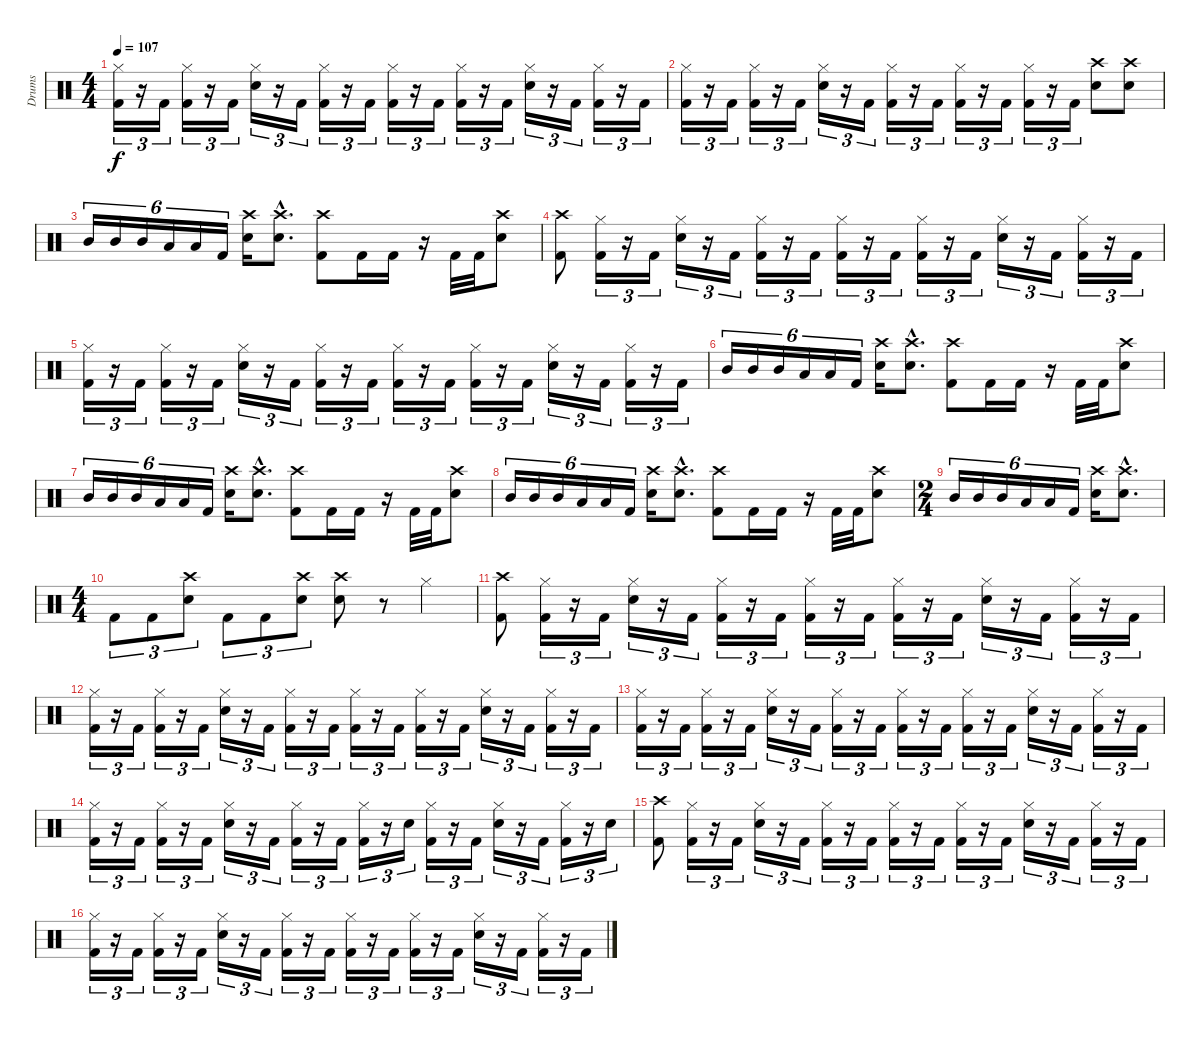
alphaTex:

\track ("Drums" "Drums") {instrument percussion}
\staff {score}
\articulation defaults
\ts (4 4)
\tempo 107
\clef neutral
\ks c
("Hi-Hat (closed)" "Kick (hit) 2").16{tu (3 2) dy f} r.16{tu (3 2)} "Kick (hit) 2".16{tu (3 2)} ("Hi-Hat (closed)" "Kick (hit) 2").16{tu (3 2)} r.16{tu (3 2)} "Kick (hit) 2".16{tu (3 2)} ("Hi-Hat (closed)" "Electric Snare (hit)").16{tu (3 2)} r.16{tu (3 2)} "Kick (hit) 2".16{tu (3 2)} ("Hi-Hat (closed)" "Kick (hit) 2").16{tu (3 2)} r.16{tu (3 2)} "Kick (hit) 2".16{tu (3 2)} ("Hi-Hat (closed)" "Kick (hit) 2").16{tu (3 2)} r.16{tu (3 2)} "Kick (hit) 2".16{tu (3 2)} ("Hi-Hat (closed)" "Kick (hit) 2").16{tu (3 2)} r.16{tu (3 2)} "Kick (hit) 2".16{tu (3 2)} ("Hi-Hat (closed)" "Electric Snare (hit)").16{tu (3 2)} r.16{tu (3 2)} "Kick (hit) 2".16{tu (3 2)} ("Hi-Hat (closed)" "Kick (hit) 2").16{tu (3 2)} r.16{tu (3 2)} "Kick (hit) 2".16{tu (3 2)} |
("Hi-Hat (closed)" "Kick (hit) 2").16{tu (3 2)} r.16{tu (3 2)} "Kick (hit) 2".16{tu (3 2)} ("Hi-Hat (closed)" "Kick (hit) 2").16{tu (3 2)} r.16{tu (3 2)} "Kick (hit) 2".16{tu (3 2)} ("Hi-Hat (closed)" "Electric Snare (hit)").16{tu (3 2)} r.16{tu (3 2)} "Kick (hit) 2".16{tu (3 2)} ("Hi-Hat (closed)" "Kick (hit) 2").16{tu (3 2)} r.16{tu (3 2)} "Kick (hit) 2".16{tu (3 2)} ("Hi-Hat (closed)" "Kick (hit) 2").16{tu (3 2)} r.16{tu (3 2)} "Kick (hit) 2".16{tu (3 2)} ("Hi-Hat (closed)" "Kick (hit) 2").16{tu (3 2)} r.16{tu (3 2)} "Kick (hit) 2".16{tu (3 2)} ("Crash high (hit)" "Electric Snare (hit)").8 ("Crash high (hit)" "Electric Snare (hit)").8 |
"Mid Tom (hit)".16{tu (6 4)} "Mid Tom (hit)".16{tu (6 4)} "Mid Tom (hit)".16{tu (6 4)} "Low Tom (hit)".16{tu (6 4)} "Low Tom (hit)".16{tu (6 4)} "Kick (hit) 2".16{tu (6 4)} ("Crash high (hit)" "Electric Snare (hit)").16 ("Crash high (hit)"{hac} "Electric Snare (hit)"{hac}).8{d} ("Crash high (hit)" "Kick (hit) 2").8 "Kick (hit) 2".16 "Kick (hit) 2".16 r.16 "Kick (hit) 2".32 "Kick (hit) 2".32 ("Crash high (hit)" "Electric Snare (hit)").8 |
("Crash high (hit)" "Kick (hit) 2").8{balance 8} ("Hi-Hat (closed)" "Kick (hit) 2").16{tu (3 2)} r.16{tu (3 2)} "Kick (hit) 2".16{tu (3 2)} ("Hi-Hat (closed)" "Electric Snare (hit)").16{tu (3 2)} r.16{tu (3 2)} "Kick (hit) 2".16{tu (3 2)} ("Hi-Hat (closed)" "Kick (hit) 2").16{tu (3 2)} r.16{tu (3 2)} "Kick (hit) 2".16{tu (3 2)} ("Hi-Hat (closed)" "Kick (hit) 2").16{tu (3 2)} r.16{tu (3 2)} "Kick (hit) 2".16{tu (3 2)} ("Hi-Hat (closed)" "Kick (hit) 2").16{tu (3 2)} r.16{tu (3 2)} "Kick (hit) 2".16{tu (3 2)} ("Hi-Hat (closed)" "Electric Snare (hit)").16{tu (3 2)} r.16{tu (3 2)} "Kick (hit) 2".16{tu (3 2)} ("Hi-Hat (closed)" "Kick (hit) 2").16{tu (3 2)} r.16{tu (3 2)} "Kick (hit) 2".16{tu (3 2)} |
("Hi-Hat (closed)" "Kick (hit) 2").16{tu (3 2)} r.16{tu (3 2)} "Kick (hit) 2".16{tu (3 2)} ("Hi-Hat (closed)" "Kick (hit) 2").16{tu (3 2)} r.16{tu (3 2)} "Kick (hit) 2".16{tu (3 2)} ("Hi-Hat (closed)" "Electric Snare (hit)").16{tu (3 2)} r.16{tu (3 2)} "Kick (hit) 2".16{tu (3 2)} ("Hi-Hat (closed)" "Kick (hit) 2").16{tu (3 2)} r.16{tu (3 2)} "Kick (hit) 2".16{tu (3 2)} ("Hi-Hat (closed)" "Kick (hit) 2").16{tu (3 2)} r.16{tu (3 2)} "Kick (hit) 2".16{tu (3 2)} ("Hi-Hat (closed)" "Kick (hit) 2").16{tu (3 2)} r.16{tu (3 2)} "Kick (hit) 2".16{tu (3 2)} ("Hi-Hat (closed)" "Electric Snare (hit)").16{tu (3 2)} r.16{tu (3 2)} "Kick (hit) 2".16{tu (3 2)} ("Hi-Hat (closed)" "Kick (hit) 2").16{tu (3 2)} r.16{tu (3 2)} "Kick (hit) 2".16{tu (3 2)} |
"Mid Tom (hit)".16{tu (6 4)} "Mid Tom (hit)".16{tu (6 4)} "Mid Tom (hit)".16{tu (6 4)} "Low Tom (hit)".16{tu (6 4)} "Low Tom (hit)".16{tu (6 4)} "Kick (hit) 2".16{tu (6 4)} ("Crash high (hit)" "Electric Snare (hit)").16 ("Crash high (hit)"{hac} "Electric Snare (hit)"{hac}).8{d} ("Crash high (hit)" "Kick (hit) 2").8 "Kick (hit) 2".16 "Kick (hit) 2".16 r.16 "Kick (hit) 2".32 "Kick (hit) 2".32 ("Crash high (hit)" "Electric Snare (hit)").8 |
"Mid Tom (hit)".16{tu (6 4)} "Mid Tom (hit)".16{tu (6 4)} "Mid Tom (hit)".16{tu (6 4)} "Low Tom (hit)".16{tu (6 4)} "Low Tom (hit)".16{tu (6 4)} "Kick (hit) 2".16{tu (6 4)} ("Crash high (hit)" "Electric Snare (hit)").16 ("Crash high (hit)"{hac} "Electric Snare (hit)"{hac}).8{d} ("Crash high (hit)" "Kick (hit) 2").8 "Kick (hit) 2".16 "Kick (hit) 2".16 r.16 "Kick (hit) 2".32 "Kick (hit) 2".32 ("Crash high (hit)" "Electric Snare (hit)").8 |
"Mid Tom (hit)".16{tu (6 4)} "Mid Tom (hit)".16{tu (6 4)} "Mid Tom (hit)".16{tu (6 4)} "Low Tom (hit)".16{tu (6 4)} "Low Tom (hit)".16{tu (6 4)} "Kick (hit) 2".16{tu (6 4)} ("Crash high (hit)" "Electric Snare (hit)").16 ("Crash high (hit)"{hac} "Electric Snare (hit)"{hac}).8{d} ("Crash high (hit)" "Kick (hit) 2").8 "Kick (hit) 2".16 "Kick (hit) 2".16 r.16 "Kick (hit) 2".32 "Kick (hit) 2".32 ("Crash high (hit)" "Electric Snare (hit)").8 |
\ts (2 4)
"Mid Tom (hit)".16{tu (6 4)} "Mid Tom (hit)".16{tu (6 4)} "Mid Tom (hit)".16{tu (6 4)} "Low Tom (hit)".16{tu (6 4)} "Low Tom (hit)".16{tu (6 4)} "Kick (hit) 2".16{tu (6 4)} ("Crash high (hit)" "Electric Snare (hit)").16 ("Crash high (hit)"{hac} "Electric Snare (hit)"{hac}).8{d} |
\ts (4 4)
"Kick (hit) 2".8{tu (3 2)} "Kick (hit) 2".8{tu (3 2)} ("Crash high (hit)" "Electric Snare (hit)").8{tu (3 2)} "Kick (hit) 2".8{tu (3 2)} "Kick (hit) 2".8{tu (3 2)} ("Crash high (hit)" "Electric Snare (hit)").8{tu (3 2)} ("Crash high (hit)" "Electric Snare (hit)").8 r.8 "Hi-Hat (closed)".4 |
("Crash high (hit)" "Kick (hit) 2").8{balance 8} ("Hi-Hat (closed)" "Kick (hit) 2").16{tu (3 2)} r.16{tu (3 2)} "Kick (hit) 2".16{tu (3 2)} ("Hi-Hat (closed)" "Electric Snare (hit)").16{tu (3 2)} r.16{tu (3 2)} "Kick (hit) 2".16{tu (3 2)} ("Hi-Hat (closed)" "Kick (hit) 2").16{tu (3 2)} r.16{tu (3 2)} "Kick (hit) 2".16{tu (3 2)} ("Hi-Hat (closed)" "Kick (hit) 2").16{tu (3 2)} r.16{tu (3 2)} "Kick (hit) 2".16{tu (3 2)} ("Hi-Hat (closed)" "Kick (hit) 2").16{tu (3 2)} r.16{tu (3 2)} "Kick (hit) 2".16{tu (3 2)} ("Hi-Hat (closed)" "Electric Snare (hit)").16{tu (3 2)} r.16{tu (3 2)} "Kick (hit) 2".16{tu (3 2)} ("Hi-Hat (closed)" "Kick (hit) 2").16{tu (3 2)} r.16{tu (3 2)} "Kick (hit) 2".16{tu (3 2)} |
("Hi-Hat (closed)" "Kick (hit) 2").16{tu (3 2)} r.16{tu (3 2)} "Kick (hit) 2".16{tu (3 2)} ("Hi-Hat (closed)" "Kick (hit) 2").16{tu (3 2)} r.16{tu (3 2)} "Kick (hit) 2".16{tu (3 2)} ("Hi-Hat (closed)" "Electric Snare (hit)").16{tu (3 2)} r.16{tu (3 2)} "Kick (hit) 2".16{tu (3 2)} ("Hi-Hat (closed)" "Kick (hit) 2").16{tu (3 2)} r.16{tu (3 2)} "Kick (hit) 2".16{tu (3 2)} ("Hi-Hat (closed)" "Kick (hit) 2").16{tu (3 2)} r.16{tu (3 2)} "Kick (hit) 2".16{tu (3 2)} ("Hi-Hat (closed)" "Kick (hit) 2").16{tu (3 2)} r.16{tu (3 2)} "Kick (hit) 2".16{tu (3 2)} ("Hi-Hat (closed)" "Electric Snare (hit)").16{tu (3 2)} r.16{tu (3 2)} "Kick (hit) 2".16{tu (3 2)} ("Hi-Hat (closed)" "Kick (hit) 2").16{tu (3 2)} r.16{tu (3 2)} "Kick (hit) 2".16{tu (3 2)} |
("Hi-Hat (closed)" "Kick (hit) 2").16{tu (3 2)} r.16{tu (3 2)} "Kick (hit) 2".16{tu (3 2)} ("Hi-Hat (closed)" "Kick (hit) 2").16{tu (3 2)} r.16{tu (3 2)} "Kick (hit) 2".16{tu (3 2)} ("Hi-Hat (closed)" "Electric Snare (hit)").16{tu (3 2)} r.16{tu (3 2)} "Kick (hit) 2".16{tu (3 2)} ("Hi-Hat (closed)" "Kick (hit) 2").16{tu (3 2)} r.16{tu (3 2)} "Kick (hit) 2".16{tu (3 2)} ("Hi-Hat (closed)" "Kick (hit) 2").16{tu (3 2)} r.16{tu (3 2)} "Kick (hit) 2".16{tu (3 2)} ("Hi-Hat (closed)" "Kick (hit) 2").16{tu (3 2)} r.16{tu (3 2)} "Kick (hit) 2".16{tu (3 2)} ("Hi-Hat (closed)" "Electric Snare (hit)").16{tu (3 2)} r.16{tu (3 2)} "Kick (hit) 2".16{tu (3 2)} ("Hi-Hat (closed)" "Kick (hit) 2").16{tu (3 2)} r.16{tu (3 2)} "Kick (hit) 2".16{tu (3 2)} |
("Hi-Hat (closed)" "Kick (hit) 2").16{tu (3 2)} r.16{tu (3 2)} "Kick (hit) 2".16{tu (3 2)} ("Hi-Hat (closed)" "Kick (hit) 2").16{tu (3 2)} r.16{tu (3 2)} "Kick (hit) 2".16{tu (3 2)} ("Hi-Hat (closed)" "Electric Snare (hit)").16{tu (3 2)} r.16{tu (3 2)} "Kick (hit) 2".16{tu (3 2)} ("Hi-Hat (closed)" "Kick (hit) 2").16{tu (3 2)} r.16{tu (3 2)} "Kick (hit) 2".16{tu (3 2)} ("Hi-Hat (closed)" "Kick (hit) 2").16{tu (3 2)} r.16{tu (3 2)} "Electric Snare (hit)".16{tu (3 2)} ("Hi-Hat (closed)" "Kick (hit) 2").16{tu (3 2)} r.16{tu (3 2)} "Kick (hit) 2".16{tu (3 2)} ("Hi-Hat (closed)" "Electric Snare (hit)").16{tu (3 2)} r.16{tu (3 2)} "Kick (hit) 2".16{tu (3 2)} ("Hi-Hat (closed)" "Kick (hit) 2").16{tu (3 2)} r.16{tu (3 2)} "Electric Snare (hit)".16{tu (3 2)} |
("Crash high (hit)" "Kick (hit) 2").8{balance 8} ("Hi-Hat (closed)" "Kick (hit) 2").16{tu (3 2)} r.16{tu (3 2)} "Kick (hit) 2".16{tu (3 2)} ("Hi-Hat (closed)" "Electric Snare (hit)").16{tu (3 2)} r.16{tu (3 2)} "Kick (hit) 2".16{tu (3 2)} ("Hi-Hat (closed)" "Kick (hit) 2").16{tu (3 2)} r.16{tu (3 2)} "Kick (hit) 2".16{tu (3 2)} ("Hi-Hat (closed)" "Kick (hit) 2").16{tu (3 2)} r.16{tu (3 2)} "Kick (hit) 2".16{tu (3 2)} ("Hi-Hat (closed)" "Kick (hit) 2").16{tu (3 2)} r.16{tu (3 2)} "Kick (hit) 2".16{tu (3 2)} ("Hi-Hat (closed)" "Electric Snare (hit)").16{tu (3 2)} r.16{tu (3 2)} "Kick (hit) 2".16{tu (3 2)} ("Hi-Hat (closed)" "Kick (hit) 2").16{tu (3 2)} r.16{tu (3 2)} "Kick (hit) 2".16{tu (3 2)} |
("Hi-Hat (closed)" "Kick (hit) 2").16{tu (3 2)} r.16{tu (3 2)} "Kick (hit) 2".16{tu (3 2)} ("Hi-Hat (closed)" "Kick (hit) 2").16{tu (3 2)} r.16{tu (3 2)} "Kick (hit) 2".16{tu (3 2)} ("Hi-Hat (closed)" "Electric Snare (hit)").16{tu (3 2)} r.16{tu (3 2)} "Kick (hit) 2".16{tu (3 2)} ("Hi-Hat (closed)" "Kick (hit) 2").16{tu (3 2)} r.16{tu (3 2)} "Kick (hit) 2".16{tu (3 2)} ("Hi-Hat (closed)" "Kick (hit) 2").16{tu (3 2)} r.16{tu (3 2)} "Kick (hit) 2".16{tu (3 2)} ("Hi-Hat (closed)" "Kick (hit) 2").16{tu (3 2)} r.16{tu (3 2)} "Kick (hit) 2".16{tu (3 2)} ("Hi-Hat (closed)" "Electric Snare (hit)").16{tu (3 2)} r.16{tu (3 2)} "Kick (hit) 2".16{tu (3 2)} ("Hi-Hat (closed)" "Kick (hit) 2").16{tu (3 2)} r.16{tu (3 2)} "Kick (hit) 2".16{tu (3 2)}
